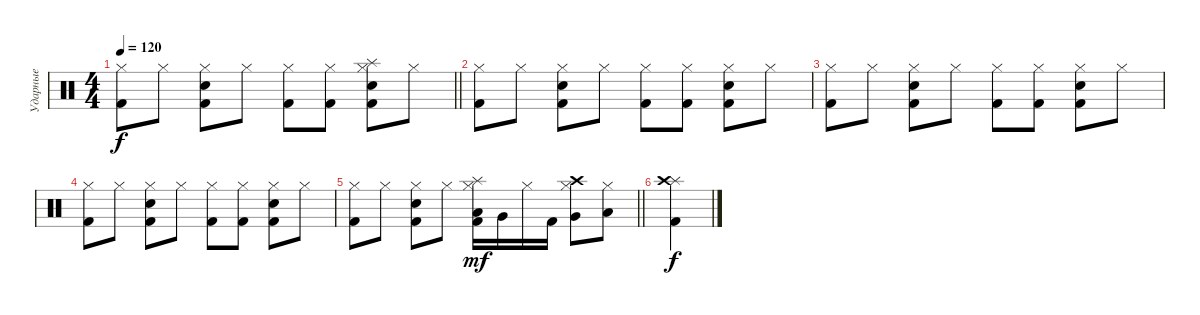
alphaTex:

\track ("Ударные" "Ударные") {solo instrument percussion}
\staff {score}
\articulation defaults
\ts (4 4)
\tempo 120
\clef neutral
\barLineRight lightlight
\ks c
("Hi-Hat (closed)" "Kick (hit) 2").8{dy f} "Hi-Hat (closed)".8 ("Hi-Hat (closed)" "Kick (hit) 2" "Electric Snare (hit)").8 "Hi-Hat (closed)".8 ("Hi-Hat (closed)" "Kick (hit) 2").8 ("Hi-Hat (closed)" "Kick (hit) 2").8 ("Hi-Hat (closed)" "Kick (hit) 2" "Electric Snare (hit)" "Splash (hit)").8 "Hi-Hat (closed)".8 |
("Hi-Hat (closed)" "Kick (hit) 2").8 "Hi-Hat (closed)".8 ("Hi-Hat (closed)" "Kick (hit) 2" "Electric Snare (hit)").8 "Hi-Hat (closed)".8 ("Hi-Hat (closed)" "Kick (hit) 2").8 ("Hi-Hat (closed)" "Kick (hit) 2").8 ("Hi-Hat (closed)" "Kick (hit) 2" "Electric Snare (hit)").8 "Hi-Hat (closed)".8 |
("Hi-Hat (closed)" "Kick (hit) 2").8 "Hi-Hat (closed)".8 ("Hi-Hat (closed)" "Kick (hit) 2" "Electric Snare (hit)").8 "Hi-Hat (closed)".8 ("Hi-Hat (closed)" "Kick (hit) 2").8 ("Hi-Hat (closed)" "Kick (hit) 2").8 ("Hi-Hat (closed)" "Kick (hit) 2" "Electric Snare (hit)").8 "Hi-Hat (closed)".8 |
("Hi-Hat (closed)" "Kick (hit) 2").8 "Hi-Hat (closed)".8 ("Hi-Hat (closed)" "Kick (hit) 2" "Electric Snare (hit)").8 "Hi-Hat (closed)".8 ("Hi-Hat (closed)" "Kick (hit) 2").8 ("Hi-Hat (closed)" "Kick (hit) 2").8 ("Hi-Hat (closed)" "Kick (hit) 2" "Electric Snare (hit)").8 "Hi-Hat (closed)".8 |
\barLineRight lightlight
("Hi-Hat (closed)" "Kick (hit) 2").8 "Hi-Hat (closed)".8 ("Hi-Hat (closed)" "Kick (hit) 2" "Electric Snare (hit)").8 "Hi-Hat (closed)".8 ("Low Tom (hit)" "Hi-Hat (closed)" "Kick (hit) 2" "Splash (hit)").16{dy mf} "Very Low Tom (hit)".16 "Hi-Hat (closed)".16 "Kick (hit) 2".16 ("Very Low Tom (hit)" "Hi-Hat (closed)" "Crash high (hit)").8 ("Low Floor Tom (hit)" "Hi-Hat (closed)").8 |
("Kick (hit) 2" "Splash (hit)" "Crash high (hit)").4{dy f}
